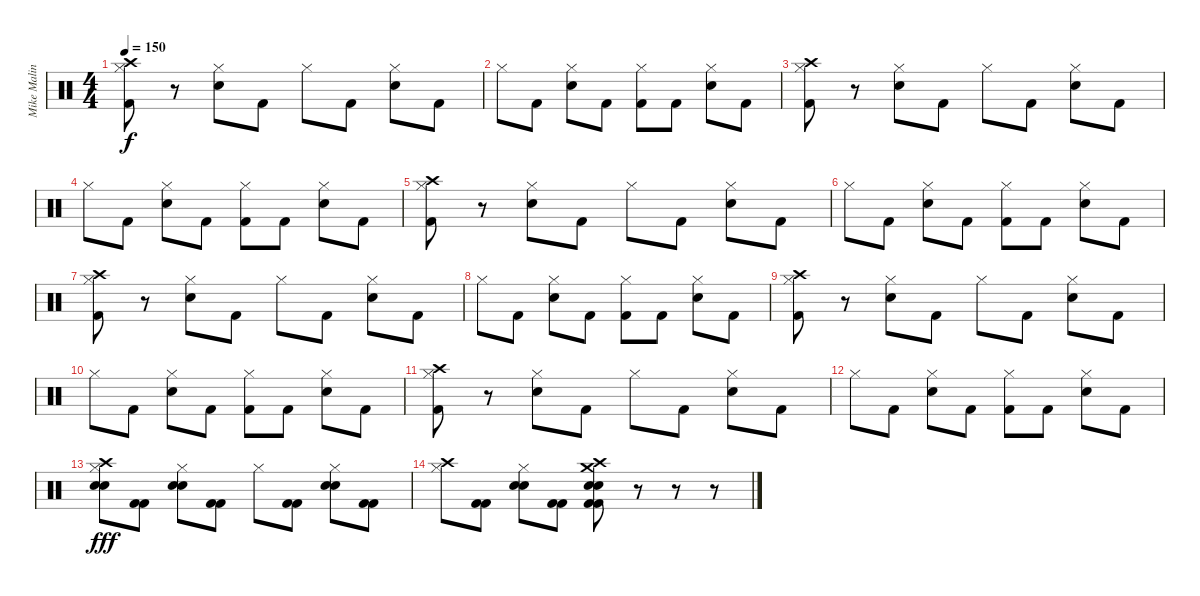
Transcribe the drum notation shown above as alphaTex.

\track ("Mike Malinin - Drums" "Mike Malin") {instrument percussion}
\staff {score}
\articulation defaults
\ts (4 4)
\tempo 150
\clef neutral
\ks c
("Crash high (hit)" "Hi-Hat (closed)" "Kick (hit) 2").8{dy f} r.8 ("Hi-Hat (closed)" "Snare (hit) 2").8 "Kick (hit) 2".8 "Hi-Hat (closed)".8 "Kick (hit) 2".8 ("Hi-Hat (closed)" "Snare (hit) 2").8 "Kick (hit) 2".8 |
"Hi-Hat (closed)".8 "Kick (hit) 2".8 ("Hi-Hat (closed)" "Snare (hit) 2").8 "Kick (hit) 2".8 ("Hi-Hat (closed)" "Kick (hit) 2").8 "Kick (hit) 2".8 ("Hi-Hat (closed)" "Snare (hit) 2").8 "Kick (hit) 2".8 |
("Crash high (hit)" "Hi-Hat (closed)" "Kick (hit) 2").8 r.8 ("Hi-Hat (closed)" "Snare (hit) 2").8 "Kick (hit) 2".8 "Hi-Hat (closed)".8 "Kick (hit) 2".8 ("Hi-Hat (closed)" "Snare (hit) 2").8 "Kick (hit) 2".8 |
"Hi-Hat (closed)".8 "Kick (hit) 2".8 ("Hi-Hat (closed)" "Snare (hit) 2").8 "Kick (hit) 2".8 ("Hi-Hat (closed)" "Kick (hit) 2").8 "Kick (hit) 2".8 ("Hi-Hat (closed)" "Snare (hit) 2").8 "Kick (hit) 2".8 |
("Crash high (hit)" "Hi-Hat (closed)" "Kick (hit) 2").8 r.8 ("Hi-Hat (closed)" "Snare (hit) 2").8 "Kick (hit) 2".8 "Hi-Hat (closed)".8 "Kick (hit) 2".8 ("Hi-Hat (closed)" "Snare (hit) 2").8 "Kick (hit) 2".8 |
"Hi-Hat (closed)".8 "Kick (hit) 2".8 ("Hi-Hat (closed)" "Snare (hit) 2").8 "Kick (hit) 2".8 ("Hi-Hat (closed)" "Kick (hit) 2").8 "Kick (hit) 2".8 ("Hi-Hat (closed)" "Snare (hit) 2").8 "Kick (hit) 2".8 |
("Crash high (hit)" "Hi-Hat (closed)" "Kick (hit) 2").8 r.8 ("Hi-Hat (closed)" "Snare (hit) 2").8 "Kick (hit) 2".8 "Hi-Hat (closed)".8 "Kick (hit) 2".8 ("Hi-Hat (closed)" "Snare (hit) 2").8 "Kick (hit) 2".8 |
"Hi-Hat (closed)".8 "Kick (hit) 2".8 ("Hi-Hat (closed)" "Snare (hit) 2").8 "Kick (hit) 2".8 ("Hi-Hat (closed)" "Kick (hit) 2").8 "Kick (hit) 2".8 ("Hi-Hat (closed)" "Snare (hit) 2").8 "Kick (hit) 2".8 |
("Crash high (hit)" "Hi-Hat (closed)" "Kick (hit) 2").8 r.8 ("Hi-Hat (closed)" "Snare (hit) 2").8 "Kick (hit) 2".8 "Hi-Hat (closed)".8 "Kick (hit) 2".8 ("Hi-Hat (closed)" "Snare (hit) 2").8 "Kick (hit) 2".8 |
"Hi-Hat (closed)".8 "Kick (hit) 2".8 ("Hi-Hat (closed)" "Snare (hit) 2").8 "Kick (hit) 2".8 ("Hi-Hat (closed)" "Kick (hit) 2").8 "Kick (hit) 2".8 ("Hi-Hat (closed)" "Snare (hit) 2").8 "Kick (hit) 2".8 |
("Crash high (hit)" "Hi-Hat (closed)" "Kick (hit) 2").8 r.8 ("Hi-Hat (closed)" "Snare (hit) 2").8 "Kick (hit) 2".8 "Hi-Hat (closed)".8 "Kick (hit) 2".8 ("Hi-Hat (closed)" "Snare (hit) 2").8 "Kick (hit) 2".8 |
"Hi-Hat (closed)".8 "Kick (hit) 2".8 ("Hi-Hat (closed)" "Snare (hit) 2").8 "Kick (hit) 2".8 ("Hi-Hat (closed)" "Kick (hit) 2").8 "Kick (hit) 2".8 ("Hi-Hat (closed)" "Snare (hit) 2").8 "Kick (hit) 2".8 |
("Crash high (hit)" "Hi-Hat (closed)" "Snare (hit) 2" "Snare (hit) 2").8{dy fff} ("Kick (hit) 2" "Kick (hit) 2").8 ("Hi-Hat (closed)" "Snare (hit) 2" "Snare (hit) 2").8 ("Kick (hit) 2" "Kick (hit) 2").8 "Hi-Hat (closed)".8 ("Kick (hit) 2" "Kick (hit) 2").8 ("Hi-Hat (closed)" "Snare (hit) 2" "Snare (hit) 2").8 ("Kick (hit) 2" "Kick (hit) 2").8 |
("Crash high (hit)" "Hi-Hat (closed)").8 ("Kick (hit) 2" "Kick (hit) 2").8 ("Hi-Hat (closed)" "Snare (hit) 2" "Snare (hit) 2").8 ("Kick (hit) 2" "Kick (hit) 2").8 ("Crash high (hit)" "Crash medium (hit)" "Snare (hit) 2" "Electric Snare (hit)" "Kick (hit) 2" "Kick (hit) 2").8 r.8 r.8 r.8
